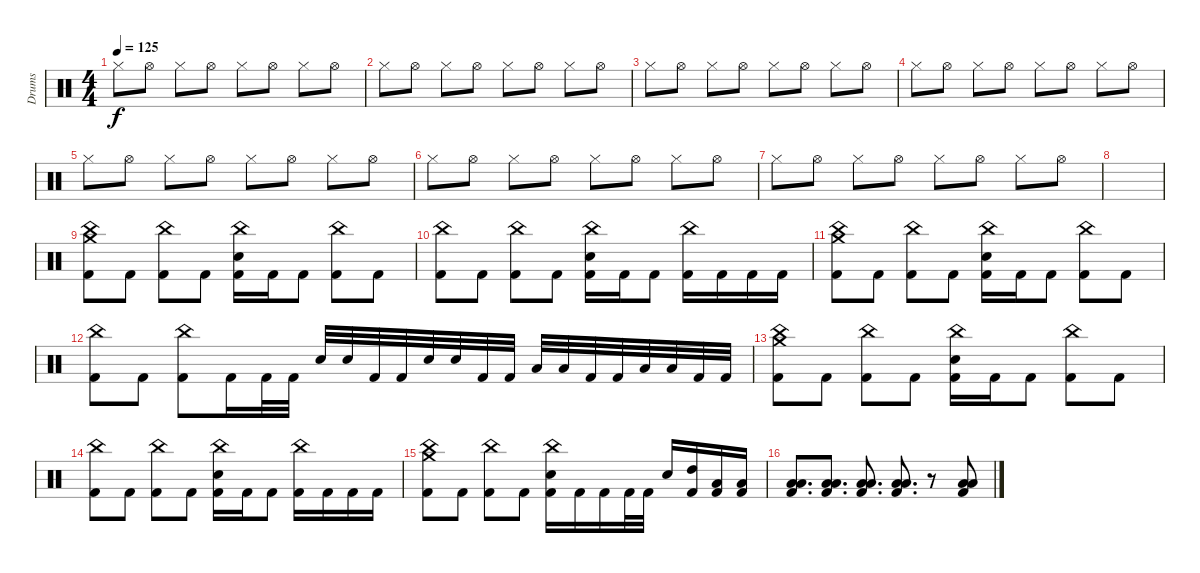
\track ("Drums" "Drums") {instrument percussion}
\staff {score}
\articulation defaults
\ts (4 4)
\tempo 125
\clef neutral
\ks c "Hi-Hat (closed)".8{dy f} "Hi-Hat (open)".8 "Hi-Hat (closed)".8 "Hi-Hat (open)".8 "Hi-Hat (closed)".8 "Hi-Hat (open)".8 "Hi-Hat (closed)".8 "Hi-Hat (open)".8
|
"Hi-Hat (closed)".8 "Hi-Hat (open)".8 "Hi-Hat (closed)".8 "Hi-Hat (open)".8 "Hi-Hat (closed)".8 "Hi-Hat (open)".8 "Hi-Hat (closed)".8 "Hi-Hat (open)".8 |
"Hi-Hat (closed)".8 "Hi-Hat (open)".8 "Hi-Hat (closed)".8 "Hi-Hat (open)".8 "Hi-Hat (closed)".8 "Hi-Hat (open)".8 "Hi-Hat (closed)".8 "Hi-Hat (open)".8 |
"Hi-Hat (closed)".8 "Hi-Hat (open)".8 "Hi-Hat (closed)".8 "Hi-Hat (open)".8 "Hi-Hat (closed)".8 "Hi-Hat (open)".8 "Hi-Hat (closed)".8 "Hi-Hat (open)".8 |
"Hi-Hat (closed)".8 "Hi-Hat (open)".8 "Hi-Hat (closed)".8 "Hi-Hat (open)".8 "Hi-Hat (closed)".8 "Hi-Hat (open)".8 "Hi-Hat (closed)".8 "Hi-Hat (open)".8 |
"Hi-Hat (closed)".8 "Hi-Hat (open)".8 "Hi-Hat (closed)".8 "Hi-Hat (open)".8 "Hi-Hat (closed)".8 "Hi-Hat (open)".8 "Hi-Hat (closed)".8 "Hi-Hat (open)".8 |
"Hi-Hat (closed)".8 "Hi-Hat (open)".8 "Hi-Hat (closed)".8 "Hi-Hat (open)".8 "Hi-Hat (closed)".8 "Hi-Hat (open)".8 "Hi-Hat (closed)".8 "Hi-Hat (open)".8 |
|
("China (hit)" "Crash medium (hit)" "Kick (hit) 2").8 "Kick (hit) 2".8 ("China (hit)" "Kick (hit) 2").8 "Kick (hit) 2".8 ("China (hit)" "Electric Snare (hit)" "Kick (hit) 2").16 "Kick (hit) 2".16 "Kick (hit) 2".8 ("China (hit)" "Kick (hit) 2").8 "Kick (hit) 2".8 |
("China (hit)" "Kick (hit) 2").8 "Kick (hit) 2".8 ("China (hit)" "Kick (hit) 2").8 "Kick (hit) 2".8 ("China (hit)" "Electric Snare (hit)" "Kick (hit) 2").16 "Kick (hit) 2".16 "Kick (hit) 2".8 ("China (hit)" "Kick (hit) 2").16 "Kick (hit) 2".16 "Kick (hit) 2".16 "Kick (hit) 2".16 |
("China (hit)" "Crash medium (hit)" "Kick (hit) 2").8 "Kick (hit) 2".8 ("China (hit)" "Kick (hit) 2").8 "Kick (hit) 2".8 ("China (hit)" "Electric Snare (hit)" "Kick (hit) 2").16 "Kick (hit) 2".16 "Kick (hit) 2".8 ("China (hit)" "Kick (hit) 2").8 "Kick (hit) 2".8 |
("China (hit)" "Kick (hit) 2").8 "Kick (hit) 2".8 ("China (hit)" "Kick (hit) 2").8 "Kick (hit) 2".16 "Kick (hit) 2".32 "Kick (hit) 2".32 "Electric Snare (hit)".32 "Electric Snare (hit)".32 "Kick (hit) 2".32 "Kick (hit) 2".32 "Electric Snare (hit)".32 "Electric Snare (hit)".32 "Kick (hit) 2".32 "Kick (hit) 2".32 "Low Tom (hit)".32 "Low Tom (hit)".32 "Kick (hit) 2".32 "Kick (hit) 2".32 "Low Floor Tom (hit)".32 "Low Floor Tom (hit)".32 "Kick (hit) 2".32 "Kick (hit) 2".32 |
("China (hit)" "Crash medium (hit)" "Kick (hit) 2").8 "Kick (hit) 2".8 ("China (hit)" "Kick (hit) 2").8 "Kick (hit) 2".8 ("China (hit)" "Electric Snare (hit)" "Kick (hit) 2").16 "Kick (hit) 2".16 "Kick (hit) 2".8 ("China (hit)" "Kick (hit) 2").8 "Kick (hit) 2".8 |
("China (hit)" "Kick (hit) 2").8 "Kick (hit) 2".8 ("China (hit)" "Kick (hit) 2").8 "Kick (hit) 2".8 ("China (hit)" "Electric Snare (hit)" "Kick (hit) 2").16 "Kick (hit) 2".16 "Kick (hit) 2".8 ("China (hit)" "Kick (hit) 2").16 "Kick (hit) 2".16 "Kick (hit) 2".16 "Kick (hit) 2".16 |
("China (hit)" "Crash medium (hit)" "Kick (hit) 2").8 "Kick (hit) 2".8 ("China (hit)" "Kick (hit) 2").8 "Kick (hit) 2".8 ("China (hit)" "Electric Snare (hit)" "Kick (hit) 2").16 "Kick (hit) 2".16 "Kick (hit) 2".16 "Kick (hit) 2".32 "Kick (hit) 2".32 "Electric Snare (hit)".16 ("High Tom (hit)" "Kick (hit) 2").16 ("Low Tom (hit)" "Kick (hit) 2").16 ("Low Floor Tom (hit)" "Kick (hit) 2").16 |
("Low Tom (hit)" "Low Floor Tom (hit)" "Kick (hit) 2").8{d} ("Low Tom (hit)" "Low Floor Tom (hit)" "Kick (hit) 2").8{d} ("Low Tom (hit)" "Low Floor Tom (hit)" "Kick (hit) 2").8{d} ("Low Tom (hit)" "Low Floor Tom (hit)" "Kick (hit) 2").8{d} r.8 ("Low Tom (hit)" "Low Floor Tom (hit)" "Kick (hit) 2").8
